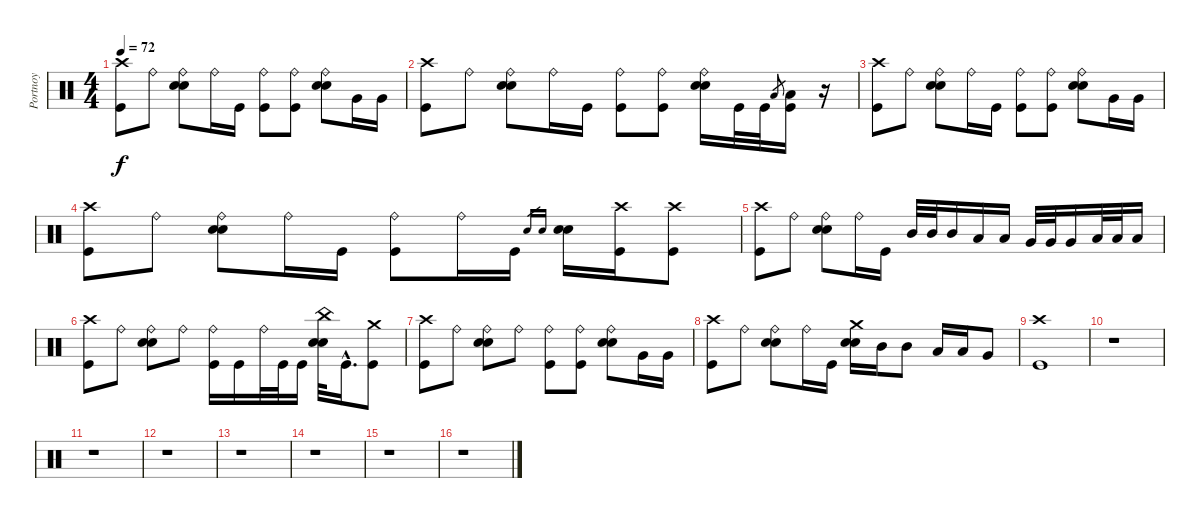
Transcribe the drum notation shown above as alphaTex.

\track ("Portnoy" "Portnoy") {instrument percussion}
\staff {score}
\articulation defaults
\ts (4 4)
\tempo 72
\clef neutral
\ks c
("Crash high (hit)" "Kick (hit)").8{dy f} "Ride (bell)".8 ("Ride (bell)" "Snare (hit) 2" "Electric Snare (hit)").8 "Ride (bell)".16 "Kick (hit)".16 ("Ride (bell)" "Kick (hit)").8 ("Ride (bell)" "Kick (hit)").8 ("Ride (bell)" "Snare (hit) 2" "Electric Snare (hit)").8 "Very Low Tom (hit)".16 "Very Low Tom (hit)".16 |
("Crash high (hit)" "Kick (hit)").8 "Ride (bell)".8 ("Ride (bell)" "Snare (hit) 2" "Electric Snare (hit)").8 "Ride (bell)".16 "Kick (hit)".16 ("Ride (bell)" "Kick (hit)").8 ("Ride (bell)" "Kick (hit)").8 ("Ride (bell)" "Snare (hit) 2" "Electric Snare (hit)").16 "Kick (hit)".32 "Kick (hit)".32 "Low Floor Tom (hit)".8{gr} ("Low Floor Tom (hit)" "Kick (hit)").16 r.16 |
("Crash high (hit)" "Kick (hit)").8 "Ride (bell)".8 ("Ride (bell)" "Snare (hit) 2" "Electric Snare (hit)").8 "Ride (bell)".16 "Kick (hit)".16 ("Ride (bell)" "Kick (hit)").8 ("Ride (bell)" "Kick (hit)").8 ("Ride (bell)" "Snare (hit) 2" "Electric Snare (hit)").8 "Very Low Tom (hit)".16 "Very Low Tom (hit)".16 |
("Crash high (hit)" "Kick (hit)").8 "Ride (bell)".8 ("Ride (bell)" "Snare (hit) 2" "Electric Snare (hit)").8 "Ride (bell)".16 "Kick (hit)".16 ("Ride (bell)" "Kick (hit)").8 "Ride (bell)".16 "Kick (hit)".16 "Snare (hit) 2".16{gr} "Electric Snare (hit)".16{gr} ("Snare (hit) 2" "Electric Snare (hit)").16 ("Crash high (hit)" "Kick (hit)").16 ("Crash high (hit)" "Kick (hit)").8 |
("Crash high (hit)" "Kick (hit)").8 "Ride (bell)".8 ("Ride (bell)" "Snare (hit) 2" "Electric Snare (hit)").8 "Ride (bell)".16 "Kick (hit)".16 "Mid Tom (hit)".32 "Mid Tom (hit)".32 "Mid Tom (hit)".16 "Low Tom (hit)".16 "Low Tom (hit)".16 "Very Low Tom (hit)".32 "Very Low Tom (hit)".32 "Very Low Tom (hit)".16 "Low Floor Tom (hit)".32 "Low Floor Tom (hit)".32 "Low Floor Tom (hit)".16 |
("Crash high (hit)" "Kick (hit)").8 "Ride (bell)".8 ("Ride (bell)" "Snare (hit) 2" "Electric Snare (hit)").8 "Ride (bell)".8 ("Ride (bell)" "Kick (hit)").16 "Kick (hit)".16 "Ride (bell)".32 "Kick (hit)".32 "Kick (hit)".16 ("China (hit)" "Snare (hit) 2" "Electric Snare (hit)").32 "Kick (hit)"{hac}.16{d} ("Crash medium (hit)" "Kick (hit)").8 |
("Crash high (hit)" "Kick (hit)").8 "Ride (bell)".8 ("Ride (bell)" "Snare (hit) 2" "Electric Snare (hit)").8 "Ride (bell)".8 ("Ride (bell)" "Kick (hit)").8 ("Ride (bell)" "Kick (hit)").8 ("Ride (bell)" "Snare (hit) 2" "Electric Snare (hit)").8 "Very Low Tom (hit)".16 "Very Low Tom (hit)".16 |
("Crash high (hit)" "Kick (hit)").8 "Ride (bell)".8 ("Ride (bell)" "Snare (hit) 2" "Electric Snare (hit)").8 "Ride (bell)".16 "Kick (hit)".16 ("Crash medium (hit)" "Snare (hit) 2" "Electric Snare (hit)").16 "Mid Tom (hit)".16 "Mid Tom (hit)".8 "Low Tom (hit)".16 "Low Tom (hit)".16 "Very Low Tom (hit)".8 |
("Crash high (hit)" "Kick (hit)").1 |
r.1 |
r.1 |
r.1 |
r.1 |
r.1 |
r.1 |
r.1
